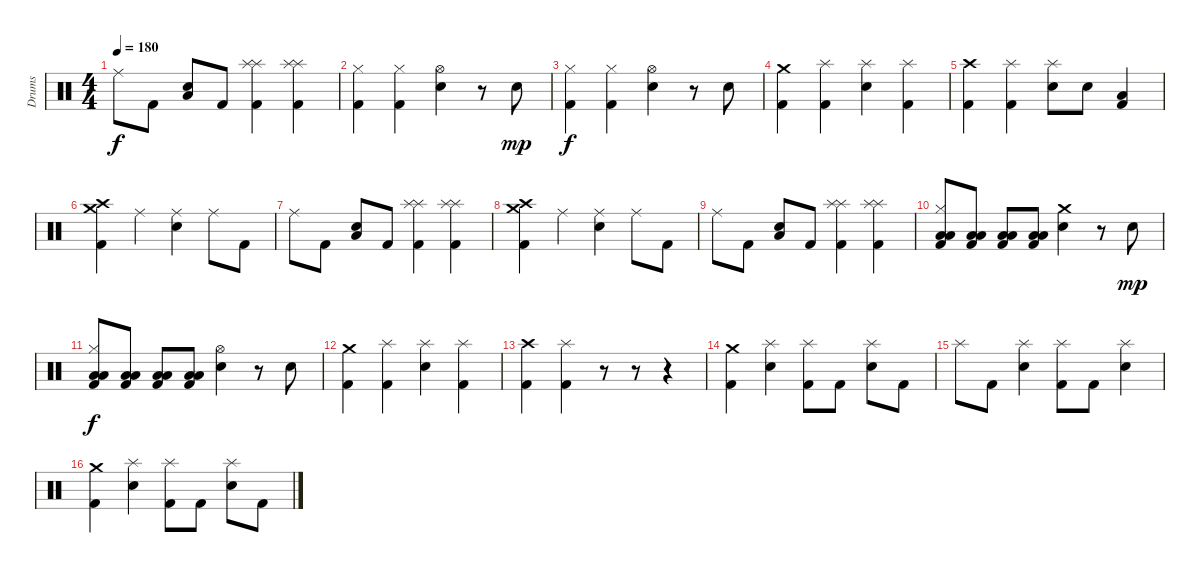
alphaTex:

\track ("Drums" "Drums") {instrument percussion}
\staff {score}
\articulation defaults
\ts (4 4)
\tempo 180
\clef neutral
\ks c "Ride (middle)".8{dy f} "Kick (hit) 2".8
("Low Floor Tom (hit)" "Electric Snare (hit)").8 "Kick (hit) 2".8 ("Splash (hit)" "Splash (hit)" "Kick (hit) 2").4 ("Splash (hit)" "Splash (hit)" "Kick (hit) 2").4 |
("Hi-Hat (closed)" "Kick (hit) 2").4 ("Hi-Hat (closed)" "Kick (hit) 2").4 ("Hi-Hat (open)" "Electric Snare (hit)").4 r.8 "Electric Snare (hit)".8{dy mp} |
("Hi-Hat (closed)" "Kick (hit) 2").4{dy f} ("Hi-Hat (closed)" "Kick (hit) 2").4 ("Hi-Hat (open)" "Electric Snare (hit)").4 r.8 "Electric Snare (hit)".8 |
("Crash medium (hit)" "Kick (hit) 2").4 ("Splash (hit)" "Kick (hit) 2").4 ("Splash (hit)" "Electric Snare (hit)").4 ("Splash (hit)" "Kick (hit) 2").4 |
("Crash high (hit)" "Kick (hit) 2").4 ("Splash (hit)" "Kick (hit) 2").4 ("Splash (hit)" "Electric Snare (hit)").8 "Electric Snare (hit)".8 ("Low Tom (hit)" "Kick (hit) 2").4 |
("Crash high (hit)" "Crash medium (hit)" "Kick (hit) 2").4 "Ride (middle)".4 ("Ride (middle)" "Electric Snare (hit)").4 "Ride (middle)".8 "Kick (hit) 2".8 |
"Ride (middle)".8 "Kick (hit) 2".8 ("Low Floor Tom (hit)" "Electric Snare (hit)").8 "Kick (hit) 2".8 ("Splash (hit)" "Splash (hit)" "Kick (hit) 2").4 ("Splash (hit)" "Splash (hit)" "Kick (hit) 2").4 |
("Crash high (hit)" "Crash medium (hit)" "Kick (hit) 2").4 "Ride (middle)".4 ("Ride (middle)" "Electric Snare (hit)").4 "Ride (middle)".8 "Kick (hit) 2".8 |
"Ride (middle)".8 "Kick (hit) 2".8 ("Low Floor Tom (hit)" "Electric Snare (hit)").8 "Kick (hit) 2".8 ("Splash (hit)" "Splash (hit)" "Kick (hit) 2").4 ("Splash (hit)" "Splash (hit)" "Kick (hit) 2").4 |
("Hi-Hat (closed)" "Low Floor Tom (hit)" "Low Tom (hit)" "Kick (hit) 2").8 ("Low Floor Tom (hit)" "Low Tom (hit)" "Kick (hit) 2").8 ("Low Floor Tom (hit)" "Low Tom (hit)" "Kick (hit) 2").8 ("Low Floor Tom (hit)" "Low Tom (hit)" "Kick (hit) 2").8 ("Crash medium (hit)" "Electric Snare (hit)").4 r.8 "Electric Snare (hit)".8{dy mp} |
("Hi-Hat (closed)" "Low Floor Tom (hit)" "Low Tom (hit)" "Kick (hit) 2").8{dy f} ("Low Floor Tom (hit)" "Low Tom (hit)" "Kick (hit) 2").8 ("Low Floor Tom (hit)" "Low Tom (hit)" "Kick (hit) 2").8 ("Low Floor Tom (hit)" "Low Tom (hit)" "Kick (hit) 2").8 ("Hi-Hat (open)" "Electric Snare (hit)").4 r.8 "Electric Snare (hit)".8 |
("Crash medium (hit)" "Kick (hit) 2").4 ("Splash (hit)" "Kick (hit) 2").4 ("Splash (hit)" "Electric Snare (hit)").4 ("Splash (hit)" "Kick (hit) 2").4 |
("Crash high (hit)" "Kick (hit) 2").4 ("Splash (hit)" "Kick (hit) 2").4 r.8 r.8 r.4 |
("Crash medium (hit)" "Kick (hit) 2").4 ("Splash (hit)" "Electric Snare (hit)").4 ("Splash (hit)" "Kick (hit) 2").8 "Kick (hit) 2".8 ("Splash (hit)" "Electric Snare (hit)").8 "Kick (hit) 2".8 |
"Splash (hit)".8 "Kick (hit) 2".8 ("Splash (hit)" "Electric Snare (hit)").4 ("Splash (hit)" "Kick (hit) 2").8 "Kick (hit) 2".8 ("Splash (hit)" "Electric Snare (hit)").4 |
("Crash medium (hit)" "Kick (hit) 2").4 ("Splash (hit)" "Electric Snare (hit)").4 ("Splash (hit)" "Kick (hit) 2").8 "Kick (hit) 2".8 ("Splash (hit)" "Electric Snare (hit)").8 "Kick (hit) 2".8
